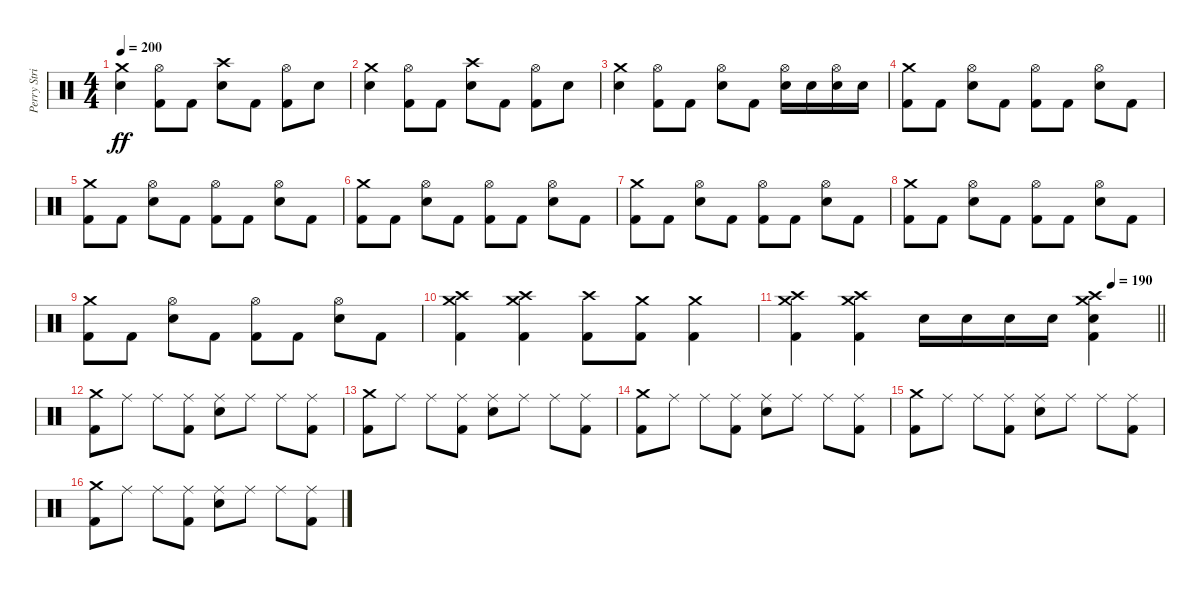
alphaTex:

\track ("Perry Strickland" "Perry Stri") {instrument percussion}
\staff {score}
\articulation defaults
\ts (4 4)
\tempo 200
\clef neutral
\ks c
("Crash medium (hit)" "Snare (hit) 2").4{dy ff} ("Hi-Hat (open)" "Kick (hit) 2").8 "Kick (hit) 2".8 ("Crash high (hit)" "Snare (hit) 2").8 "Kick (hit) 2".8 ("Hi-Hat (open)" "Kick (hit) 2").8 "Snare (hit) 2".8 |
("Crash medium (hit)" "Snare (hit) 2").4 ("Hi-Hat (open)" "Kick (hit) 2").8 "Kick (hit) 2".8 ("Crash high (hit)" "Snare (hit) 2").8 "Kick (hit) 2".8 ("Hi-Hat (open)" "Kick (hit) 2").8 "Snare (hit) 2".8 |
("Crash medium (hit)" "Snare (hit) 2").4 ("Hi-Hat (open)" "Kick (hit) 2").8 "Kick (hit) 2".8 ("Hi-Hat (open)" "Snare (hit) 2").8 "Kick (hit) 2".8 ("Hi-Hat (open)" "Snare (hit) 2").16 "Snare (hit) 2".16 ("Hi-Hat (open)" "Snare (hit) 2").16 "Snare (hit) 2".16 |
("Crash medium (hit)" "Kick (hit) 2").8 "Kick (hit) 2".8 ("Hi-Hat (open)" "Snare (hit) 2").8 "Kick (hit) 2".8 ("Hi-Hat (open)" "Kick (hit) 2").8 "Kick (hit) 2".8 ("Hi-Hat (open)" "Snare (hit) 2").8 "Kick (hit) 2".8 |
("Crash medium (hit)" "Kick (hit) 2").8 "Kick (hit) 2".8 ("Hi-Hat (open)" "Snare (hit) 2").8 "Kick (hit) 2".8 ("Hi-Hat (open)" "Kick (hit) 2").8 "Kick (hit) 2".8 ("Hi-Hat (open)" "Snare (hit) 2").8 "Kick (hit) 2".8 |
("Crash medium (hit)" "Kick (hit) 2").8 "Kick (hit) 2".8 ("Hi-Hat (open)" "Snare (hit) 2").8 "Kick (hit) 2".8 ("Hi-Hat (open)" "Kick (hit) 2").8 "Kick (hit) 2".8 ("Hi-Hat (open)" "Snare (hit) 2").8 "Kick (hit) 2".8 |
("Crash medium (hit)" "Kick (hit) 2").8 "Kick (hit) 2".8 ("Hi-Hat (open)" "Snare (hit) 2").8 "Kick (hit) 2".8 ("Hi-Hat (open)" "Kick (hit) 2").8 "Kick (hit) 2".8 ("Hi-Hat (open)" "Snare (hit) 2").8 "Kick (hit) 2".8 |
("Crash medium (hit)" "Kick (hit) 2").8 "Kick (hit) 2".8 ("Hi-Hat (open)" "Snare (hit) 2").8 "Kick (hit) 2".8 ("Hi-Hat (open)" "Kick (hit) 2").8 "Kick (hit) 2".8 ("Hi-Hat (open)" "Snare (hit) 2").8 "Kick (hit) 2".8 |
("Crash medium (hit)" "Kick (hit) 2").8 "Kick (hit) 2".8 ("Hi-Hat (open)" "Snare (hit) 2").8 "Kick (hit) 2".8 ("Hi-Hat (open)" "Kick (hit) 2").8 "Kick (hit) 2".8 ("Hi-Hat (open)" "Snare (hit) 2").8 "Kick (hit) 2".8 |
("Crash medium (hit)" "Crash high (hit)" "Kick (hit) 2").4 ("Crash medium (hit)" "Crash high (hit)" "Kick (hit) 2").4 ("Crash high (hit)" "Kick (hit) 2").8 ("Crash medium (hit)" "Kick (hit) 2").8 ("Crash medium (hit)" "Kick (hit) 2").4 |
\tempo (190 0.875)
\barLineRight lightlight
("Crash medium (hit)" "Crash high (hit)" "Kick (hit) 2").4 ("Crash medium (hit)" "Crash high (hit)" "Kick (hit) 2").4 "Snare (hit) 2".16 "Snare (hit) 2".16 "Snare (hit) 2".16 "Snare (hit) 2".16 ("Crash medium (hit)" "Crash high (hit)" "Snare (hit) 2" "Kick (hit) 2").4 |
("Crash medium (hit)" "Kick (hit) 2").8 "Ride (middle)".8 "Ride (middle)".8 ("Ride (middle)" "Kick (hit) 2").8 ("Ride (middle)" "Snare (hit) 2").8 "Ride (middle)".8 "Ride (middle)".8 ("Ride (middle)" "Kick (hit) 2").8 |
("Crash medium (hit)" "Kick (hit) 2").8 "Ride (middle)".8 "Ride (middle)".8 ("Ride (middle)" "Kick (hit) 2").8 ("Ride (middle)" "Snare (hit) 2").8 "Ride (middle)".8 "Ride (middle)".8 ("Ride (middle)" "Kick (hit) 2").8 |
("Crash medium (hit)" "Kick (hit) 2").8 "Ride (middle)".8 "Ride (middle)".8 ("Ride (middle)" "Kick (hit) 2").8 ("Ride (middle)" "Snare (hit) 2").8 "Ride (middle)".8 "Ride (middle)".8 ("Ride (middle)" "Kick (hit) 2").8 |
("Crash medium (hit)" "Kick (hit) 2").8 "Ride (middle)".8 "Ride (middle)".8 ("Ride (middle)" "Kick (hit) 2").8 ("Ride (middle)" "Snare (hit) 2").8 "Ride (middle)".8 "Ride (middle)".8 ("Ride (middle)" "Kick (hit) 2").8 |
("Crash medium (hit)" "Kick (hit) 2").8 "Ride (middle)".8 "Ride (middle)".8 ("Ride (middle)" "Kick (hit) 2").8 ("Ride (middle)" "Snare (hit) 2").8 "Ride (middle)".8 "Ride (middle)".8 ("Ride (middle)" "Kick (hit) 2").8
